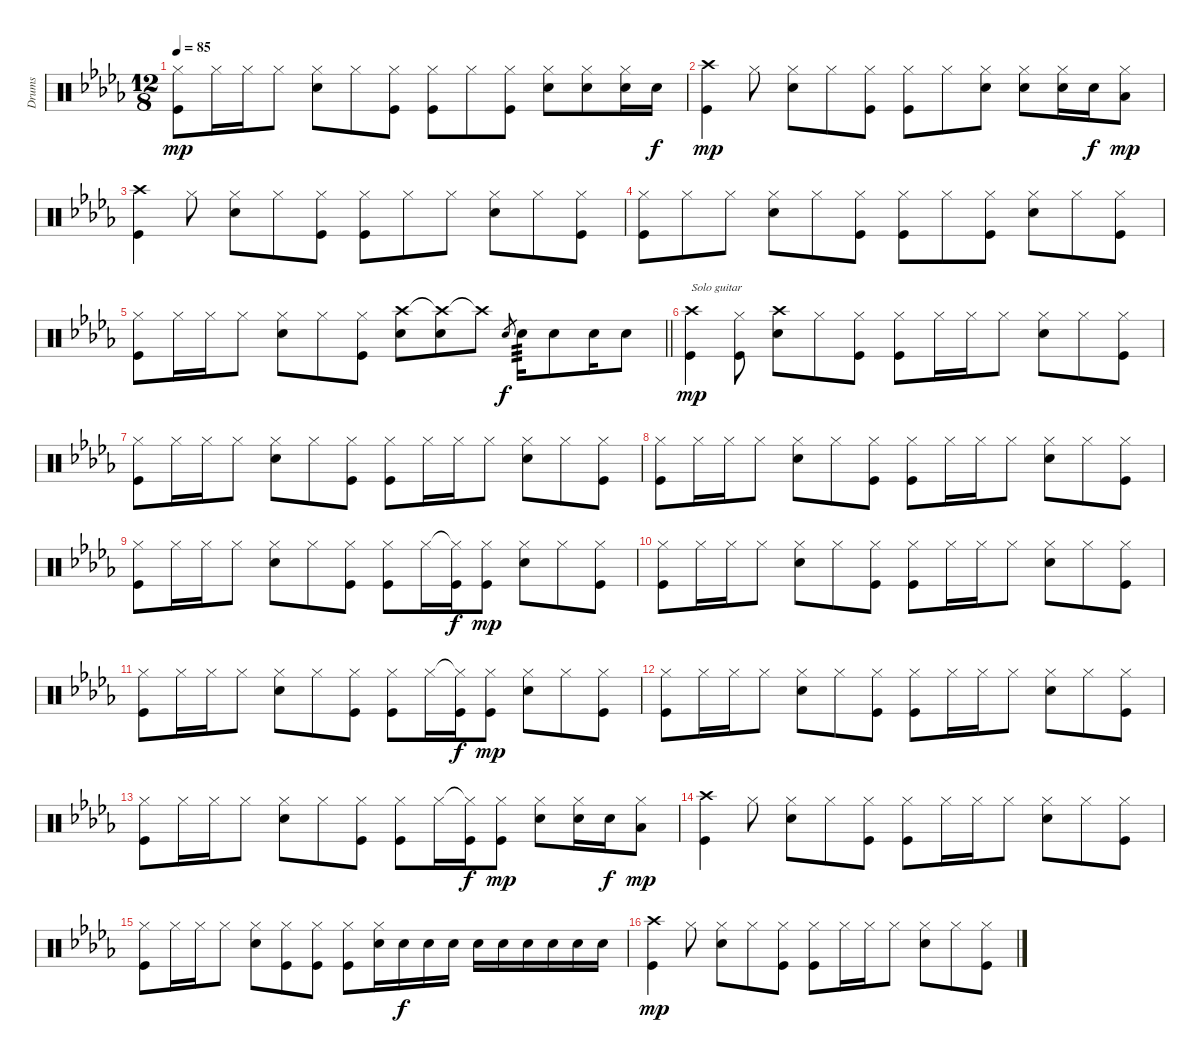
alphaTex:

\track ("Drums" "Drums") {instrument percussion}
\staff {score}
\articulation defaults
\ts (12 8)
\tempo 85
\clef neutral
\ks bbminor
("Hi-Hat (closed)" "Kick (hit)").8{dy mp} "Hi-Hat (closed)".16 "Hi-Hat (closed)".16 "Hi-Hat (closed)".8 ("Hi-Hat (closed)" "Snare (hit) 2").8 "Hi-Hat (closed)".8 ("Hi-Hat (closed)" "Kick (hit)").8 ("Hi-Hat (closed)" "Kick (hit)").8 "Hi-Hat (closed)".8 ("Hi-Hat (closed)" "Kick (hit)").8 ("Hi-Hat (closed)" "Snare (hit) 2").8 ("Hi-Hat (closed)" "Snare (hit) 2").8 ("Hi-Hat (closed)" "Snare (hit) 2").16 "Snare (hit) 2".16{dy f} |
("Crash high (hit)" "Kick (hit)").4{dy mp} "Hi-Hat (closed)".8 ("Hi-Hat (closed)" "Snare (hit) 2").8 "Hi-Hat (closed)".8 ("Hi-Hat (closed)" "Kick (hit)").8 ("Hi-Hat (closed)" "Kick (hit)").8 "Hi-Hat (closed)".8 ("Hi-Hat (closed)" "Snare (hit) 2").8 ("Hi-Hat (closed)" "Snare (hit) 2").8 ("Hi-Hat (closed)" "Snare (hit) 2").16 "Snare (hit) 2".16{dy f} ("Hi-Hat (closed)" "Low Tom (hit)").8{dy mp} |
("Crash high (hit)" "Kick (hit)").4 "Hi-Hat (closed)".8 ("Hi-Hat (closed)" "Snare (hit) 2").8 "Hi-Hat (closed)".8 ("Hi-Hat (closed)" "Kick (hit)").8 ("Hi-Hat (closed)" "Kick (hit)").8 "Hi-Hat (closed)".8 "Hi-Hat (closed)".8 ("Hi-Hat (closed)" "Snare (hit) 2").8 "Hi-Hat (closed)".8 ("Hi-Hat (closed)" "Kick (hit)").8 |
("Hi-Hat (closed)" "Kick (hit)").8 "Hi-Hat (closed)".8 "Hi-Hat (closed)".8 ("Hi-Hat (closed)" "Snare (hit) 2").8 "Hi-Hat (closed)".8 ("Hi-Hat (closed)" "Kick (hit)").8 ("Hi-Hat (closed)" "Kick (hit)").8 "Hi-Hat (closed)".8 ("Hi-Hat (closed)" "Kick (hit)").8 ("Hi-Hat (closed)" "Snare (hit) 2").8 "Hi-Hat (closed)".8 ("Hi-Hat (closed)" "Kick (hit)").8 |
\barLineRight lightlight
("Hi-Hat (closed)" "Kick (hit)").8 "Hi-Hat (closed)".16 "Hi-Hat (closed)".16 "Hi-Hat (closed)".8 ("Hi-Hat (closed)" "Snare (hit) 2").8 "Hi-Hat (closed)".8 ("Hi-Hat (closed)" "Kick (hit)").8 ("Crash high (hit)" "Snare (hit) 2").8 ("Crash high (hit)"{t} "Snare (hit) 2").8 "Crash high (hit)"{t}.8 "Snare (hit) 2".8{gr dy f} "Snare (hit) 2".16{tp 3} "Snare (hit) 2".8 "Snare (hit) 2".16 "Snare (hit) 2".8 |
("Crash high (hit)" "Kick (hit)").4{txt "Solo guitar" dy mp} ("Hi-Hat (closed)" "Kick (hit)").8 ("Crash high (hit)" "Snare (hit) 2").8 "Hi-Hat (closed)".8 ("Hi-Hat (closed)" "Kick (hit)").8 ("Hi-Hat (closed)" "Kick (hit)").8 "Hi-Hat (closed)".16 "Hi-Hat (closed)".16 "Hi-Hat (closed)".8 ("Hi-Hat (closed)" "Snare (hit) 2").8 "Hi-Hat (closed)".8 ("Hi-Hat (closed)" "Kick (hit)").8 |
("Hi-Hat (closed)" "Kick (hit)").8 "Hi-Hat (closed)".16 "Hi-Hat (closed)".16 "Hi-Hat (closed)".8 ("Hi-Hat (closed)" "Snare (hit) 2").8 "Hi-Hat (closed)".8 ("Hi-Hat (closed)" "Kick (hit)").8 ("Hi-Hat (closed)" "Kick (hit)").8 "Hi-Hat (closed)".16 "Hi-Hat (closed)".16 "Hi-Hat (closed)".8 ("Hi-Hat (closed)" "Snare (hit) 2").8 "Hi-Hat (closed)".8 ("Hi-Hat (closed)" "Kick (hit)").8 |
("Hi-Hat (closed)" "Kick (hit)").8 "Hi-Hat (closed)".16 "Hi-Hat (closed)".16 "Hi-Hat (closed)".8 ("Hi-Hat (closed)" "Snare (hit) 2").8 "Hi-Hat (closed)".8 ("Hi-Hat (closed)" "Kick (hit)").8 ("Hi-Hat (closed)" "Kick (hit)").8 "Hi-Hat (closed)".16 "Hi-Hat (closed)".16 "Hi-Hat (closed)".8 ("Hi-Hat (closed)" "Snare (hit) 2").8 "Hi-Hat (closed)".8 ("Hi-Hat (closed)" "Kick (hit)").8 |
("Hi-Hat (closed)" "Kick (hit)").8 "Hi-Hat (closed)".16 "Hi-Hat (closed)".16 "Hi-Hat (closed)".8 ("Hi-Hat (closed)" "Snare (hit) 2").8 "Hi-Hat (closed)".8 ("Hi-Hat (closed)" "Kick (hit)").8 ("Hi-Hat (closed)" "Kick (hit)").8 "Hi-Hat (closed)".16 ("Hi-Hat (closed)"{t} "Kick (hit)").16{dy f} ("Hi-Hat (closed)" "Kick (hit)").8{dy mp} ("Hi-Hat (closed)" "Snare (hit) 2").8 "Hi-Hat (closed)".8 ("Hi-Hat (closed)" "Kick (hit)").8 |
("Hi-Hat (closed)" "Kick (hit)").8 "Hi-Hat (closed)".16 "Hi-Hat (closed)".16 "Hi-Hat (closed)".8 ("Hi-Hat (closed)" "Snare (hit) 2").8 "Hi-Hat (closed)".8 ("Hi-Hat (closed)" "Kick (hit)").8 ("Hi-Hat (closed)" "Kick (hit)").8 "Hi-Hat (closed)".16 "Hi-Hat (closed)".16 "Hi-Hat (closed)".8 ("Hi-Hat (closed)" "Snare (hit) 2").8 "Hi-Hat (closed)".8 ("Hi-Hat (closed)" "Kick (hit)").8 |
("Hi-Hat (closed)" "Kick (hit)").8 "Hi-Hat (closed)".16 "Hi-Hat (closed)".16 "Hi-Hat (closed)".8 ("Hi-Hat (closed)" "Snare (hit) 2").8 "Hi-Hat (closed)".8 ("Hi-Hat (closed)" "Kick (hit)").8 ("Hi-Hat (closed)" "Kick (hit)").8 "Hi-Hat (closed)".16 ("Hi-Hat (closed)"{t} "Kick (hit)").16{dy f} ("Hi-Hat (closed)" "Kick (hit)").8{dy mp} ("Hi-Hat (closed)" "Snare (hit) 2").8 "Hi-Hat (closed)".8 ("Hi-Hat (closed)" "Kick (hit)").8 |
("Hi-Hat (closed)" "Kick (hit)").8 "Hi-Hat (closed)".16 "Hi-Hat (closed)".16 "Hi-Hat (closed)".8 ("Hi-Hat (closed)" "Snare (hit) 2").8 "Hi-Hat (closed)".8 ("Hi-Hat (closed)" "Kick (hit)").8 ("Hi-Hat (closed)" "Kick (hit)").8 "Hi-Hat (closed)".16 "Hi-Hat (closed)".16 "Hi-Hat (closed)".8 ("Hi-Hat (closed)" "Snare (hit) 2").8 "Hi-Hat (closed)".8 ("Hi-Hat (closed)" "Kick (hit)").8 |
("Hi-Hat (closed)" "Kick (hit)").8 "Hi-Hat (closed)".16 "Hi-Hat (closed)".16 "Hi-Hat (closed)".8 ("Hi-Hat (closed)" "Snare (hit) 2").8 "Hi-Hat (closed)".8 ("Hi-Hat (closed)" "Kick (hit)").8 ("Hi-Hat (closed)" "Kick (hit)").8 "Hi-Hat (closed)".16 ("Hi-Hat (closed)"{t} "Kick (hit)").16{dy f} ("Hi-Hat (closed)" "Kick (hit)").8{dy mp} ("Hi-Hat (closed)" "Snare (hit) 2").8 ("Hi-Hat (closed)" "Snare (hit) 2").16 "Snare (hit) 2".16{dy f} ("Hi-Hat (closed)" "Low Tom (hit)").8{dy mp} |
("Crash high (hit)" "Kick (hit)").4 "Hi-Hat (closed)".8 ("Hi-Hat (closed)" "Snare (hit) 2").8 "Hi-Hat (closed)".8 ("Hi-Hat (closed)" "Kick (hit)").8 ("Hi-Hat (closed)" "Kick (hit)").8 "Hi-Hat (closed)".16 "Hi-Hat (closed)".16 "Hi-Hat (closed)".8 ("Hi-Hat (closed)" "Snare (hit) 2").8 "Hi-Hat (closed)".8 ("Hi-Hat (closed)" "Kick (hit)").8 |
("Hi-Hat (closed)" "Kick (hit)").8 "Hi-Hat (closed)".16 "Hi-Hat (closed)".16 "Hi-Hat (closed)".8 ("Hi-Hat (closed)" "Snare (hit) 2").8 ("Hi-Hat (closed)" "Kick (hit)").8 ("Hi-Hat (closed)" "Kick (hit)").8 ("Hi-Hat (closed)" "Kick (hit)").8 ("Hi-Hat (closed)" "Snare (hit) 2").16 "Snare (hit) 2".16{dy f} "Snare (hit) 2".16 "Snare (hit) 2".16 "Snare (hit) 2".16 "Snare (hit) 2".16 "Snare (hit) 2".16 "Snare (hit) 2".16 "Snare (hit) 2".16 "Snare (hit) 2".16 |
("Crash high (hit)" "Kick (hit)").4{dy mp} "Hi-Hat (closed)".8 ("Hi-Hat (closed)" "Snare (hit) 2").8 "Hi-Hat (closed)".8 ("Hi-Hat (closed)" "Kick (hit)").8 ("Hi-Hat (closed)" "Kick (hit)").8 "Hi-Hat (closed)".16 "Hi-Hat (closed)".16 "Hi-Hat (closed)".8 ("Hi-Hat (closed)" "Snare (hit) 2").8 "Hi-Hat (closed)".8 ("Hi-Hat (closed)" "Kick (hit)").8
